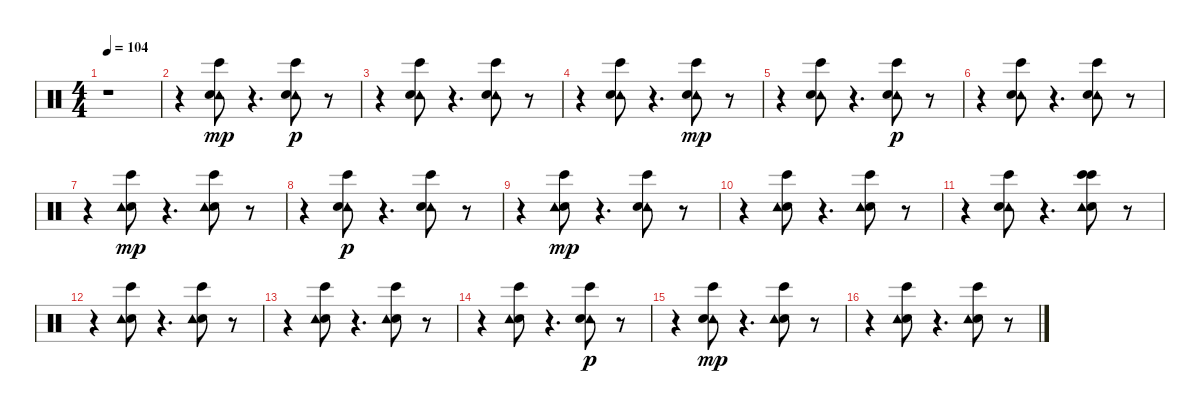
\track "" {instrument percussion}
\staff {score}
\articulation defaults
\ts (4 4)
\tempo 104
\clef neutral
\ks c
r.1{dy mp} |
r.4 ("Tambourine (hit)" "Electric Snare (hit)" "Bongo High (hit)").8 r.4{d} ("Tambourine (hit)" "Bongo High (hit)" "Electric Snare (hit)").8{dy p} r.8 |
r.4 ("Bongo High (hit)" "Tambourine (hit)" "Electric Snare (hit)").8 r.4{d} ("Tambourine (hit)" "Bongo High (hit)" "Electric Snare (hit)").8 r.8 |
r.4 ("Tambourine (hit)" "Bongo High (hit)" "Electric Snare (hit)").8 r.4{d} ("Tambourine (hit)" "Electric Snare (hit)" "Bongo High (hit)").8{dy mp} r.8 |
r.4 ("Tambourine (hit)" "Electric Snare (hit)" "Bongo High (hit)").8 r.4{d} ("Bongo High (hit)" "Tambourine (hit)" "Electric Snare (hit)").8{dy p} r.8 |
r.4 ("Bongo High (hit)" "Tambourine (hit)" "Electric Snare (hit)").8 r.4{d} ("Bongo High (hit)" "Tambourine (hit)" "Electric Snare (hit)").8 r.8 |
r.4 ("Electric Snare (hit)" "Tambourine (hit)" "Bongo High (hit)").8{dy mp} r.4{d} ("Electric Snare (hit)" "Tambourine (hit)" "Bongo High (hit)").8 r.8 |
r.4 ("Bongo High (hit)" "Tambourine (hit)" "Electric Snare (hit)").8{dy p} r.4{d} ("Bongo High (hit)" "Tambourine (hit)" "Electric Snare (hit)").8 r.8 |
r.4 ("Bongo High (hit)" "Electric Snare (hit)" "Tambourine (hit)").8{dy mp} r.4{d} ("Tambourine (hit)" "Electric Snare (hit)" "Bongo High (hit)").8 r.8 |
r.4 ("Electric Snare (hit)" "Bongo High (hit)" "Tambourine (hit)").8 r.4{d} ("Bongo High (hit)" "Electric Snare (hit)" "Tambourine (hit)").8 r.8 |
r.4 ("Tambourine (hit)" "Electric Snare (hit)" "Bongo High (hit)").8 r.4{d} ("Electric Snare (hit)" "Tambourine (hit)" "Bongo High (hit)" "Bongo High (hit)").8 r.8 |
r.4 ("Bongo High (hit)" "Electric Snare (hit)" "Tambourine (hit)").8 r.4{d} ("Electric Snare (hit)" "Tambourine (hit)" "Bongo High (hit)").8 r.8 |
r.4 ("Bongo High (hit)" "Electric Snare (hit)" "Tambourine (hit)").8 r.4{d} ("Bongo High (hit)" "Electric Snare (hit)" "Tambourine (hit)").8 r.8 |
r.4 ("Bongo High (hit)" "Electric Snare (hit)" "Tambourine (hit)").8 r.4{d} ("Bongo High (hit)" "Tambourine (hit)" "Electric Snare (hit)").8{dy p} r.8 |
r.4 ("Tambourine (hit)" "Electric Snare (hit)" "Bongo High (hit)").8{dy mp} r.4{d} ("Bongo High (hit)" "Electric Snare (hit)" "Tambourine (hit)").8 r.8 |
r.4 ("Bongo High (hit)" "Electric Snare (hit)" "Tambourine (hit)").8 r.4{d} ("Electric Snare (hit)" "Bongo High (hit)" "Tambourine (hit)").8 r.8
